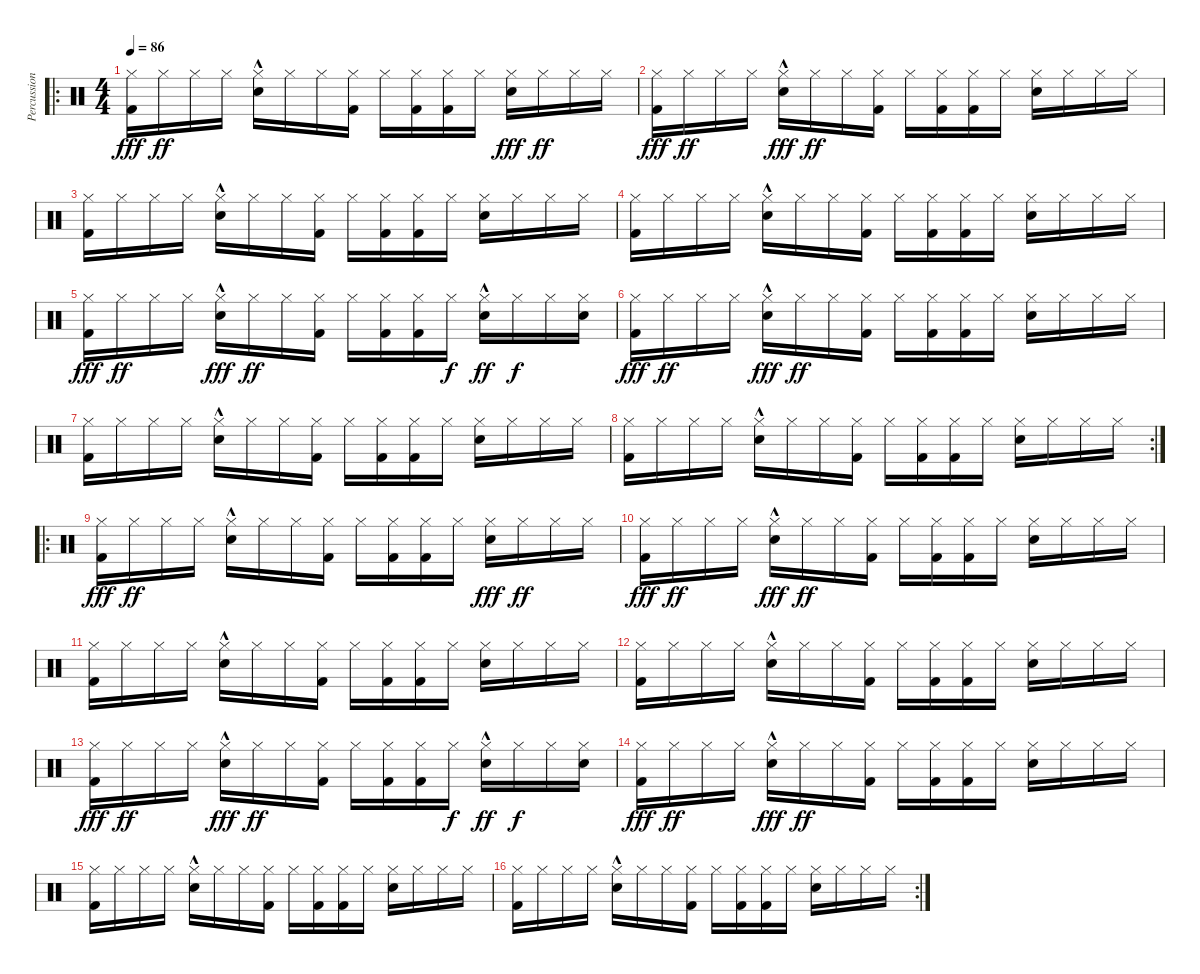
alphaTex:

\track ("Percussion" "Percussion") {instrument percussion}
\staff {score}
\articulation defaults
\ro
\ts (4 4)
\tempo 86
\clef neutral
\ks c
("Hi-Hat (closed)" "Kick (hit) 2").16{dy fff} "Hi-Hat (closed)".16{dy ff} "Hi-Hat (closed)".16 "Hi-Hat (closed)".16 ("Hi-Hat (closed)" "Snare (hit) 2"{hac}).16 "Hi-Hat (closed)".16 "Hi-Hat (closed)".16 ("Hi-Hat (closed)" "Kick (hit) 2").16 "Hi-Hat (closed)".16 ("Hi-Hat (closed)" "Kick (hit) 2").16 ("Hi-Hat (closed)" "Kick (hit) 2").16 "Hi-Hat (closed)".16 ("Hi-Hat (closed)" "Snare (hit) 2").16{dy fff} "Hi-Hat (closed)".16{dy ff} "Hi-Hat (closed)".16 "Hi-Hat (closed)".16 |
("Hi-Hat (closed)" "Kick (hit) 2").16{dy fff} "Hi-Hat (closed)".16{dy ff} "Hi-Hat (closed)".16 "Hi-Hat (closed)".16 ("Hi-Hat (closed)" "Snare (hit) 2"{hac}).16{dy fff} "Hi-Hat (closed)".16{dy ff} "Hi-Hat (closed)".16 ("Hi-Hat (closed)" "Kick (hit) 2").16 "Hi-Hat (closed)".16 ("Hi-Hat (closed)" "Kick (hit) 2").16 ("Hi-Hat (closed)" "Kick (hit) 2").16 "Hi-Hat (closed)".16 ("Hi-Hat (closed)" "Snare (hit) 2").16 "Hi-Hat (closed)".16 "Hi-Hat (closed)".16 "Hi-Hat (closed)".16 |
("Hi-Hat (closed)" "Kick (hit) 2").16 "Hi-Hat (closed)".16 "Hi-Hat (closed)".16 "Hi-Hat (closed)".16 ("Snare (hit) 2"{hac} "Hi-Hat (closed)").16 "Hi-Hat (closed)".16 "Hi-Hat (closed)".16 ("Hi-Hat (closed)" "Kick (hit) 2").16 "Hi-Hat (closed)".16 ("Kick (hit) 2" "Hi-Hat (closed)").16 ("Kick (hit) 2" "Hi-Hat (closed)").16 "Hi-Hat (closed)".16 ("Hi-Hat (closed)" "Snare (hit) 2").16 "Hi-Hat (closed)".16 "Hi-Hat (closed)".16 "Hi-Hat (closed)".16 |
("Hi-Hat (closed)" "Kick (hit) 2").16 "Hi-Hat (closed)".16 "Hi-Hat (closed)".16 "Hi-Hat (closed)".16 ("Snare (hit) 2"{hac} "Hi-Hat (closed)").16 "Hi-Hat (closed)".16 "Hi-Hat (closed)".16 ("Hi-Hat (closed)" "Kick (hit) 2").16 "Hi-Hat (closed)".16 ("Kick (hit) 2" "Hi-Hat (closed)").16 ("Kick (hit) 2" "Hi-Hat (closed)").16 "Hi-Hat (closed)".16 ("Hi-Hat (closed)" "Snare (hit) 2").16 "Hi-Hat (closed)".16 "Hi-Hat (closed)".16 "Hi-Hat (closed)".16 |
("Hi-Hat (closed)" "Kick (hit) 2").16{dy fff} "Hi-Hat (closed)".16{dy ff} "Hi-Hat (closed)".16 "Hi-Hat (closed)".16 ("Hi-Hat (closed)" "Snare (hit) 2"{hac}).16{dy fff} "Hi-Hat (closed)".16{dy ff} "Hi-Hat (closed)".16 ("Hi-Hat (closed)" "Kick (hit) 2").16 "Hi-Hat (closed)".16 ("Hi-Hat (closed)" "Kick (hit) 2").16 ("Hi-Hat (closed)" "Kick (hit) 2").16 "Hi-Hat (closed)".16{dy f} ("Hi-Hat (closed)" "Snare (hit) 2"{hac}).16{dy ff} "Hi-Hat (closed)".16{dy f} "Hi-Hat (closed)".16 ("Hi-Hat (closed)" "Snare (hit) 2").16 |
("Hi-Hat (closed)" "Kick (hit) 2").16{dy fff} "Hi-Hat (closed)".16{dy ff} "Hi-Hat (closed)".16 "Hi-Hat (closed)".16 ("Hi-Hat (closed)" "Snare (hit) 2"{hac}).16{dy fff} "Hi-Hat (closed)".16{dy ff} "Hi-Hat (closed)".16 ("Hi-Hat (closed)" "Kick (hit) 2").16 "Hi-Hat (closed)".16 ("Hi-Hat (closed)" "Kick (hit) 2").16 ("Hi-Hat (closed)" "Kick (hit) 2").16 "Hi-Hat (closed)".16 ("Hi-Hat (closed)" "Snare (hit) 2").16 "Hi-Hat (closed)".16 "Hi-Hat (closed)".16 "Hi-Hat (closed)".16 |
("Hi-Hat (closed)" "Kick (hit) 2").16 "Hi-Hat (closed)".16 "Hi-Hat (closed)".16 "Hi-Hat (closed)".16 ("Snare (hit) 2"{hac} "Hi-Hat (closed)").16 "Hi-Hat (closed)".16 "Hi-Hat (closed)".16 ("Hi-Hat (closed)" "Kick (hit) 2").16 "Hi-Hat (closed)".16 ("Kick (hit) 2" "Hi-Hat (closed)").16 ("Kick (hit) 2" "Hi-Hat (closed)").16 "Hi-Hat (closed)".16 ("Hi-Hat (closed)" "Snare (hit) 2").16 "Hi-Hat (closed)".16 "Hi-Hat (closed)".16 "Hi-Hat (closed)".16 |
\rc 2
("Hi-Hat (closed)" "Kick (hit) 2").16 "Hi-Hat (closed)".16 "Hi-Hat (closed)".16 "Hi-Hat (closed)".16 ("Snare (hit) 2"{hac} "Hi-Hat (closed)").16 "Hi-Hat (closed)".16 "Hi-Hat (closed)".16 ("Hi-Hat (closed)" "Kick (hit) 2").16 "Hi-Hat (closed)".16 ("Kick (hit) 2" "Hi-Hat (closed)").16 ("Kick (hit) 2" "Hi-Hat (closed)").16 "Hi-Hat (closed)".16 ("Hi-Hat (closed)" "Snare (hit) 2").16 "Hi-Hat (closed)".16 "Hi-Hat (closed)".16 "Hi-Hat (closed)".16 |
\ro
("Hi-Hat (closed)" "Kick (hit) 2").16{dy fff} "Hi-Hat (closed)".16{dy ff} "Hi-Hat (closed)".16 "Hi-Hat (closed)".16 ("Hi-Hat (closed)" "Snare (hit) 2"{hac}).16 "Hi-Hat (closed)".16 "Hi-Hat (closed)".16 ("Hi-Hat (closed)" "Kick (hit) 2").16 "Hi-Hat (closed)".16 ("Hi-Hat (closed)" "Kick (hit) 2").16 ("Hi-Hat (closed)" "Kick (hit) 2").16 "Hi-Hat (closed)".16 ("Hi-Hat (closed)" "Snare (hit) 2").16{dy fff} "Hi-Hat (closed)".16{dy ff} "Hi-Hat (closed)".16 "Hi-Hat (closed)".16 |
("Hi-Hat (closed)" "Kick (hit) 2").16{dy fff} "Hi-Hat (closed)".16{dy ff} "Hi-Hat (closed)".16 "Hi-Hat (closed)".16 ("Hi-Hat (closed)" "Snare (hit) 2"{hac}).16{dy fff} "Hi-Hat (closed)".16{dy ff} "Hi-Hat (closed)".16 ("Hi-Hat (closed)" "Kick (hit) 2").16 "Hi-Hat (closed)".16 ("Hi-Hat (closed)" "Kick (hit) 2").16 ("Hi-Hat (closed)" "Kick (hit) 2").16 "Hi-Hat (closed)".16 ("Hi-Hat (closed)" "Snare (hit) 2").16 "Hi-Hat (closed)".16 "Hi-Hat (closed)".16 "Hi-Hat (closed)".16 |
("Hi-Hat (closed)" "Kick (hit) 2").16 "Hi-Hat (closed)".16 "Hi-Hat (closed)".16 "Hi-Hat (closed)".16 ("Snare (hit) 2"{hac} "Hi-Hat (closed)").16 "Hi-Hat (closed)".16 "Hi-Hat (closed)".16 ("Hi-Hat (closed)" "Kick (hit) 2").16 "Hi-Hat (closed)".16 ("Kick (hit) 2" "Hi-Hat (closed)").16 ("Kick (hit) 2" "Hi-Hat (closed)").16 "Hi-Hat (closed)".16 ("Hi-Hat (closed)" "Snare (hit) 2").16 "Hi-Hat (closed)".16 "Hi-Hat (closed)".16 "Hi-Hat (closed)".16 |
("Hi-Hat (closed)" "Kick (hit) 2").16 "Hi-Hat (closed)".16 "Hi-Hat (closed)".16 "Hi-Hat (closed)".16 ("Snare (hit) 2"{hac} "Hi-Hat (closed)").16 "Hi-Hat (closed)".16 "Hi-Hat (closed)".16 ("Hi-Hat (closed)" "Kick (hit) 2").16 "Hi-Hat (closed)".16 ("Kick (hit) 2" "Hi-Hat (closed)").16 ("Kick (hit) 2" "Hi-Hat (closed)").16 "Hi-Hat (closed)".16 ("Hi-Hat (closed)" "Snare (hit) 2").16 "Hi-Hat (closed)".16 "Hi-Hat (closed)".16 "Hi-Hat (closed)".16 |
("Hi-Hat (closed)" "Kick (hit) 2").16{dy fff} "Hi-Hat (closed)".16{dy ff} "Hi-Hat (closed)".16 "Hi-Hat (closed)".16 ("Hi-Hat (closed)" "Snare (hit) 2"{hac}).16{dy fff} "Hi-Hat (closed)".16{dy ff} "Hi-Hat (closed)".16 ("Hi-Hat (closed)" "Kick (hit) 2").16 "Hi-Hat (closed)".16 ("Hi-Hat (closed)" "Kick (hit) 2").16 ("Hi-Hat (closed)" "Kick (hit) 2").16 "Hi-Hat (closed)".16{dy f} ("Hi-Hat (closed)" "Snare (hit) 2"{hac}).16{dy ff} "Hi-Hat (closed)".16{dy f} "Hi-Hat (closed)".16 ("Hi-Hat (closed)" "Snare (hit) 2").16 |
("Hi-Hat (closed)" "Kick (hit) 2").16{dy fff} "Hi-Hat (closed)".16{dy ff} "Hi-Hat (closed)".16 "Hi-Hat (closed)".16 ("Hi-Hat (closed)" "Snare (hit) 2"{hac}).16{dy fff} "Hi-Hat (closed)".16{dy ff} "Hi-Hat (closed)".16 ("Hi-Hat (closed)" "Kick (hit) 2").16 "Hi-Hat (closed)".16 ("Hi-Hat (closed)" "Kick (hit) 2").16 ("Hi-Hat (closed)" "Kick (hit) 2").16 "Hi-Hat (closed)".16 ("Hi-Hat (closed)" "Snare (hit) 2").16 "Hi-Hat (closed)".16 "Hi-Hat (closed)".16 "Hi-Hat (closed)".16 |
("Hi-Hat (closed)" "Kick (hit) 2").16 "Hi-Hat (closed)".16 "Hi-Hat (closed)".16 "Hi-Hat (closed)".16 ("Snare (hit) 2"{hac} "Hi-Hat (closed)").16 "Hi-Hat (closed)".16 "Hi-Hat (closed)".16 ("Hi-Hat (closed)" "Kick (hit) 2").16 "Hi-Hat (closed)".16 ("Kick (hit) 2" "Hi-Hat (closed)").16 ("Kick (hit) 2" "Hi-Hat (closed)").16 "Hi-Hat (closed)".16 ("Hi-Hat (closed)" "Snare (hit) 2").16 "Hi-Hat (closed)".16 "Hi-Hat (closed)".16 "Hi-Hat (closed)".16 |
\rc 2
("Hi-Hat (closed)" "Kick (hit) 2").16 "Hi-Hat (closed)".16 "Hi-Hat (closed)".16 "Hi-Hat (closed)".16 ("Snare (hit) 2"{hac} "Hi-Hat (closed)").16 "Hi-Hat (closed)".16 "Hi-Hat (closed)".16 ("Hi-Hat (closed)" "Kick (hit) 2").16 "Hi-Hat (closed)".16 ("Kick (hit) 2" "Hi-Hat (closed)").16 ("Kick (hit) 2" "Hi-Hat (closed)").16 "Hi-Hat (closed)".16 ("Hi-Hat (closed)" "Snare (hit) 2").16 "Hi-Hat (closed)".16 "Hi-Hat (closed)".16 "Hi-Hat (closed)".16
